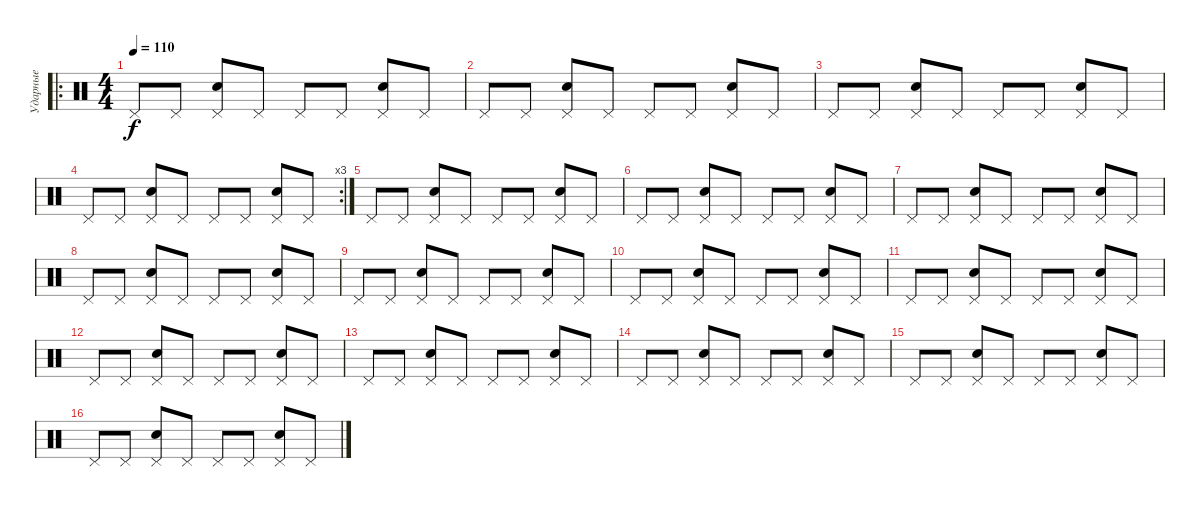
\track ("Ударные" "Ударные") {instrument percussion}
\staff {score}
\articulation defaults
\ro
\ts (4 4)
\tempo 110
\clef neutral
\ks c "Pedal Hi-Hat (hit)".8{dy f} "Pedal Hi-Hat (hit)".8
("Pedal Hi-Hat (hit)" "Snare (hit) 2").8 "Pedal Hi-Hat (hit)".8 "Pedal Hi-Hat (hit)".8 "Pedal Hi-Hat (hit)".8 ("Pedal Hi-Hat (hit)" "Snare (hit) 2").8 "Pedal Hi-Hat (hit)".8 |
"Pedal Hi-Hat (hit)".8 "Pedal Hi-Hat (hit)".8 ("Pedal Hi-Hat (hit)" "Snare (hit) 2").8 "Pedal Hi-Hat (hit)".8 "Pedal Hi-Hat (hit)".8 "Pedal Hi-Hat (hit)".8 ("Pedal Hi-Hat (hit)" "Snare (hit) 2").8 "Pedal Hi-Hat (hit)".8 |
"Pedal Hi-Hat (hit)".8 "Pedal Hi-Hat (hit)".8 ("Pedal Hi-Hat (hit)" "Snare (hit) 2").8 "Pedal Hi-Hat (hit)".8 "Pedal Hi-Hat (hit)".8 "Pedal Hi-Hat (hit)".8 ("Pedal Hi-Hat (hit)" "Snare (hit) 2").8 "Pedal Hi-Hat (hit)".8 |
\rc 3 "Pedal Hi-Hat (hit)".8 "Pedal Hi-Hat (hit)".8
("Pedal Hi-Hat (hit)" "Snare (hit) 2").8 "Pedal Hi-Hat (hit)".8 "Pedal Hi-Hat (hit)".8 "Pedal Hi-Hat (hit)".8 ("Pedal Hi-Hat (hit)" "Snare (hit) 2").8 "Pedal Hi-Hat (hit)".8 |
"Pedal Hi-Hat (hit)".8 "Pedal Hi-Hat (hit)".8 ("Pedal Hi-Hat (hit)" "Snare (hit) 2").8 "Pedal Hi-Hat (hit)".8 "Pedal Hi-Hat (hit)".8 "Pedal Hi-Hat (hit)".8 ("Pedal Hi-Hat (hit)" "Snare (hit) 2").8 "Pedal Hi-Hat (hit)".8 |
"Pedal Hi-Hat (hit)".8 "Pedal Hi-Hat (hit)".8 ("Pedal Hi-Hat (hit)" "Snare (hit) 2").8 "Pedal Hi-Hat (hit)".8 "Pedal Hi-Hat (hit)".8 "Pedal Hi-Hat (hit)".8 ("Pedal Hi-Hat (hit)" "Snare (hit) 2").8 "Pedal Hi-Hat (hit)".8 |
"Pedal Hi-Hat (hit)".8 "Pedal Hi-Hat (hit)".8 ("Pedal Hi-Hat (hit)" "Snare (hit) 2").8 "Pedal Hi-Hat (hit)".8 "Pedal Hi-Hat (hit)".8 "Pedal Hi-Hat (hit)".8 ("Pedal Hi-Hat (hit)" "Snare (hit) 2").8 "Pedal Hi-Hat (hit)".8 |
"Pedal Hi-Hat (hit)".8 "Pedal Hi-Hat (hit)".8 ("Pedal Hi-Hat (hit)" "Snare (hit) 2").8 "Pedal Hi-Hat (hit)".8 "Pedal Hi-Hat (hit)".8 "Pedal Hi-Hat (hit)".8 ("Pedal Hi-Hat (hit)" "Snare (hit) 2").8 "Pedal Hi-Hat (hit)".8 |
"Pedal Hi-Hat (hit)".8{volume 14} "Pedal Hi-Hat (hit)".8 ("Pedal Hi-Hat (hit)" "Snare (hit) 2").8 "Pedal Hi-Hat (hit)".8 "Pedal Hi-Hat (hit)".8 "Pedal Hi-Hat (hit)".8 ("Pedal Hi-Hat (hit)" "Snare (hit) 2").8 "Pedal Hi-Hat (hit)".8 |
"Pedal Hi-Hat (hit)".8 "Pedal Hi-Hat (hit)".8 ("Pedal Hi-Hat (hit)" "Snare (hit) 2").8 "Pedal Hi-Hat (hit)".8 "Pedal Hi-Hat (hit)".8 "Pedal Hi-Hat (hit)".8 ("Pedal Hi-Hat (hit)" "Snare (hit) 2").8 "Pedal Hi-Hat (hit)".8 |
"Pedal Hi-Hat (hit)".8 "Pedal Hi-Hat (hit)".8 ("Pedal Hi-Hat (hit)" "Snare (hit) 2").8 "Pedal Hi-Hat (hit)".8 "Pedal Hi-Hat (hit)".8 "Pedal Hi-Hat (hit)".8 ("Pedal Hi-Hat (hit)" "Snare (hit) 2").8 "Pedal Hi-Hat (hit)".8 |
"Pedal Hi-Hat (hit)".8 "Pedal Hi-Hat (hit)".8 ("Pedal Hi-Hat (hit)" "Snare (hit) 2").8 "Pedal Hi-Hat (hit)".8 "Pedal Hi-Hat (hit)".8 "Pedal Hi-Hat (hit)".8 ("Pedal Hi-Hat (hit)" "Snare (hit) 2").8 "Pedal Hi-Hat (hit)".8 |
"Pedal Hi-Hat (hit)".8 "Pedal Hi-Hat (hit)".8 ("Pedal Hi-Hat (hit)" "Snare (hit) 2").8 "Pedal Hi-Hat (hit)".8 "Pedal Hi-Hat (hit)".8 "Pedal Hi-Hat (hit)".8 ("Pedal Hi-Hat (hit)" "Snare (hit) 2").8 "Pedal Hi-Hat (hit)".8 |
"Pedal Hi-Hat (hit)".8 "Pedal Hi-Hat (hit)".8 ("Pedal Hi-Hat (hit)" "Snare (hit) 2").8 "Pedal Hi-Hat (hit)".8 "Pedal Hi-Hat (hit)".8 "Pedal Hi-Hat (hit)".8 ("Pedal Hi-Hat (hit)" "Snare (hit) 2").8 "Pedal Hi-Hat (hit)".8 |
"Pedal Hi-Hat (hit)".8 "Pedal Hi-Hat (hit)".8 ("Pedal Hi-Hat (hit)" "Snare (hit) 2").8 "Pedal Hi-Hat (hit)".8 "Pedal Hi-Hat (hit)".8 "Pedal Hi-Hat (hit)".8 ("Pedal Hi-Hat (hit)" "Snare (hit) 2").8 "Pedal Hi-Hat (hit)".8 |
"Pedal Hi-Hat (hit)".8 "Pedal Hi-Hat (hit)".8 ("Pedal Hi-Hat (hit)" "Snare (hit) 2").8 "Pedal Hi-Hat (hit)".8 "Pedal Hi-Hat (hit)".8 "Pedal Hi-Hat (hit)".8 ("Pedal Hi-Hat (hit)" "Snare (hit) 2").8 "Pedal Hi-Hat (hit)".8
